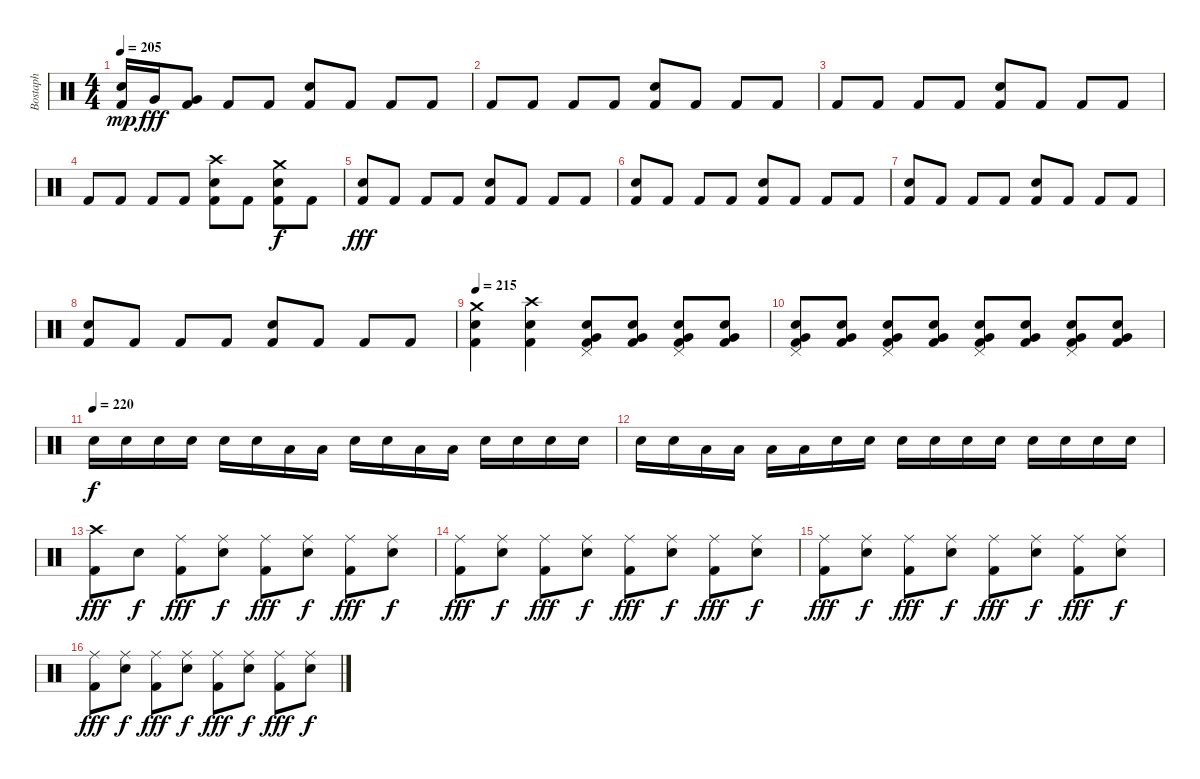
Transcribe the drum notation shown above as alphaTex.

\track ("Bostaph" "Bostaph") {instrument percussion}
\staff {score}
\articulation defaults
\ts (4 4)
\tempo 205
\clef neutral
\ks c
("Electric Snare (hit)" "Kick (hit) 2").16{dy mp} "Very Low Tom (hit)".16{dy fff} ("Very Low Tom (hit)" "Kick (hit) 2").8 "Kick (hit) 2".8 "Kick (hit) 2".8 ("Electric Snare (hit)" "Kick (hit) 2").8 "Kick (hit) 2".8 "Kick (hit) 2".8 "Kick (hit) 2".8 |
"Kick (hit) 2".8 "Kick (hit) 2".8 "Kick (hit) 2".8 "Kick (hit) 2".8 ("Electric Snare (hit)" "Kick (hit) 2").8 "Kick (hit) 2".8 "Kick (hit) 2".8 "Kick (hit) 2".8 |
"Kick (hit) 2".8 "Kick (hit) 2".8 "Kick (hit) 2".8 "Kick (hit) 2".8 ("Electric Snare (hit)" "Kick (hit) 2").8 "Kick (hit) 2".8 "Kick (hit) 2".8 "Kick (hit) 2".8 |
"Kick (hit) 2".8 "Kick (hit) 2".8 "Kick (hit) 2".8 "Kick (hit) 2".8 ("Crash high (hit)" "Electric Snare (hit)" "Kick (hit) 2").8 "Kick (hit) 2".8 ("Crash medium (hit)" "Electric Snare (hit)" "Kick (hit) 2").8{dy f} "Kick (hit) 2".8 |
("Electric Snare (hit)" "Kick (hit) 2").8{dy fff} "Kick (hit) 2".8 "Kick (hit) 2".8 "Kick (hit) 2".8 ("Electric Snare (hit)" "Kick (hit) 2").8 "Kick (hit) 2".8 "Kick (hit) 2".8 "Kick (hit) 2".8 |
("Electric Snare (hit)" "Kick (hit) 2").8 "Kick (hit) 2".8 "Kick (hit) 2".8 "Kick (hit) 2".8 ("Electric Snare (hit)" "Kick (hit) 2").8 "Kick (hit) 2".8 "Kick (hit) 2".8 "Kick (hit) 2".8 |
("Electric Snare (hit)" "Kick (hit) 2").8 "Kick (hit) 2".8 "Kick (hit) 2".8 "Kick (hit) 2".8 ("Electric Snare (hit)" "Kick (hit) 2").8 "Kick (hit) 2".8 "Kick (hit) 2".8 "Kick (hit) 2".8 |
("Electric Snare (hit)" "Kick (hit) 2").8 "Kick (hit) 2".8 "Kick (hit) 2".8 "Kick (hit) 2".8 ("Electric Snare (hit)" "Kick (hit) 2").8 "Kick (hit) 2".8 "Kick (hit) 2".8 "Kick (hit) 2".8 |
\tempo 215
("Crash medium (hit)" "Electric Snare (hit)" "Kick (hit) 2").4 ("Crash high (hit)" "Electric Snare (hit)" "Kick (hit) 2").4 ("Pedal Hi-Hat (hit)" "Very Low Tom (hit)" "Electric Snare (hit)" "Kick (hit) 2").8 ("Very Low Tom (hit)" "Electric Snare (hit)" "Kick (hit) 2").8 ("Pedal Hi-Hat (hit)" "Very Low Tom (hit)" "Electric Snare (hit)" "Kick (hit) 2").8 ("Very Low Tom (hit)" "Electric Snare (hit)" "Kick (hit) 2").8 |
("Pedal Hi-Hat (hit)" "Very Low Tom (hit)" "Electric Snare (hit)" "Kick (hit) 2").8 ("Very Low Tom (hit)" "Electric Snare (hit)" "Kick (hit) 2").8 ("Pedal Hi-Hat (hit)" "Very Low Tom (hit)" "Electric Snare (hit)" "Kick (hit) 2").8 ("Very Low Tom (hit)" "Electric Snare (hit)" "Kick (hit) 2").8 ("Pedal Hi-Hat (hit)" "Very Low Tom (hit)" "Electric Snare (hit)" "Kick (hit) 2").8 ("Very Low Tom (hit)" "Electric Snare (hit)" "Kick (hit) 2").8 ("Pedal Hi-Hat (hit)" "Very Low Tom (hit)" "Electric Snare (hit)" "Kick (hit) 2").8 ("Very Low Tom (hit)" "Electric Snare (hit)" "Kick (hit) 2").8 |
\tempo (220)
"Electric Snare (hit)".16{dy f} "Electric Snare (hit)".16 "Electric Snare (hit)".16 "Electric Snare (hit)".16 "Electric Snare (hit)".16 "Electric Snare (hit)".16 "Low Tom (hit)".16 "Low Tom (hit)".16 "Electric Snare (hit)".16 "Electric Snare (hit)".16 "Low Tom (hit)".16 "Low Tom (hit)".16 "Electric Snare (hit)".16 "Electric Snare (hit)".16 "Electric Snare (hit)".16 "Electric Snare (hit)".16 |
"Electric Snare (hit)".16 "Electric Snare (hit)".16 "Low Tom (hit)".16 "Low Tom (hit)".16 "Low Tom (hit)".16 "Low Tom (hit)".16 "Electric Snare (hit)".16 "Electric Snare (hit)".16 "Electric Snare (hit)".16 "Electric Snare (hit)".16 "Electric Snare (hit)".16 "Electric Snare (hit)".16 "Electric Snare (hit)".16 "Electric Snare (hit)".16 "Electric Snare (hit)".16 "Electric Snare (hit)".16 |
("Crash high (hit)" "Kick (hit) 2").8{dy fff} "Electric Snare (hit)".8{dy f} ("Ride (middle)" "Kick (hit) 2").8{dy fff} ("Ride (middle)" "Electric Snare (hit)").8{dy f} ("Ride (middle)" "Kick (hit) 2").8{dy fff} ("Ride (middle)" "Electric Snare (hit)").8{dy f} ("Ride (middle)" "Kick (hit) 2").8{dy fff} ("Ride (middle)" "Electric Snare (hit)").8{dy f} |
("Ride (middle)" "Kick (hit) 2").8{dy fff} ("Ride (middle)" "Electric Snare (hit)").8{dy f} ("Ride (middle)" "Kick (hit) 2").8{dy fff} ("Ride (middle)" "Electric Snare (hit)").8{dy f} ("Ride (middle)" "Kick (hit) 2").8{dy fff} ("Ride (middle)" "Electric Snare (hit)").8{dy f} ("Ride (middle)" "Kick (hit) 2").8{dy fff} ("Ride (middle)" "Electric Snare (hit)").8{dy f} |
("Ride (middle)" "Kick (hit) 2").8{dy fff} ("Ride (middle)" "Electric Snare (hit)").8{dy f} ("Ride (middle)" "Kick (hit) 2").8{dy fff} ("Ride (middle)" "Electric Snare (hit)").8{dy f} ("Ride (middle)" "Kick (hit) 2").8{dy fff} ("Ride (middle)" "Electric Snare (hit)").8{dy f} ("Ride (middle)" "Kick (hit) 2").8{dy fff} ("Ride (middle)" "Electric Snare (hit)").8{dy f} |
("Ride (middle)" "Kick (hit) 2").8{dy fff} ("Ride (middle)" "Electric Snare (hit)").8{dy f} ("Ride (middle)" "Kick (hit) 2").8{dy fff} ("Ride (middle)" "Electric Snare (hit)").8{dy f} ("Ride (middle)" "Kick (hit) 2").8{dy fff} ("Ride (middle)" "Electric Snare (hit)").8{dy f} ("Ride (middle)" "Kick (hit) 2").8{dy fff} ("Ride (middle)" "Electric Snare (hit)").8{dy f}
